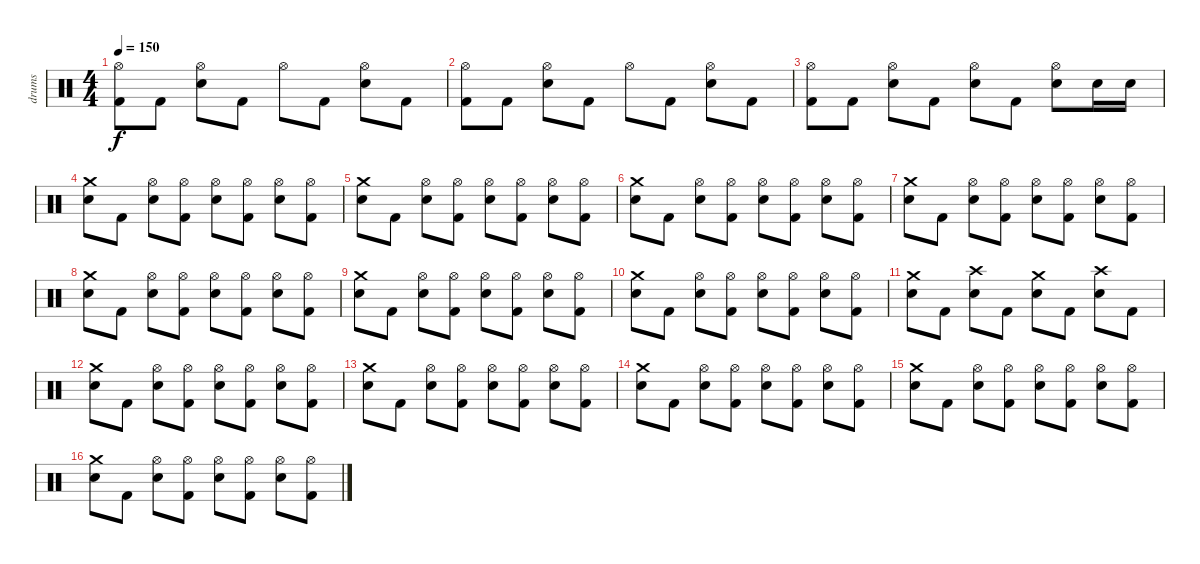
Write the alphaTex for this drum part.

\track ("drums" "drums") {instrument percussion}
\staff {score}
\articulation defaults
\ts (4 4)
\tempo 150
\clef neutral
\ks c
("Hi-Hat (open)" "Kick (hit) 2").8{dy f} "Kick (hit) 2".8 ("Hi-Hat (open)" "Electric Snare (hit)").8 "Kick (hit) 2".8 "Hi-Hat (open)".8 "Kick (hit) 2".8 ("Hi-Hat (open)" "Electric Snare (hit)").8 "Kick (hit) 2".8 |
("Hi-Hat (open)" "Kick (hit) 2").8 "Kick (hit) 2".8 ("Hi-Hat (open)" "Electric Snare (hit)").8 "Kick (hit) 2".8 "Hi-Hat (open)".8 "Kick (hit) 2".8 ("Hi-Hat (open)" "Electric Snare (hit)").8 "Kick (hit) 2".8 |
("Hi-Hat (open)" "Kick (hit) 2").8 "Kick (hit) 2".8 ("Hi-Hat (open)" "Electric Snare (hit)").8 "Kick (hit) 2".8 ("Hi-Hat (open)" "Electric Snare (hit)").8 "Kick (hit) 2".8 ("Hi-Hat (open)" "Electric Snare (hit)").8 "Electric Snare (hit)".16 "Electric Snare (hit)".16 |
("Crash medium (hit)" "Electric Snare (hit)").8 "Kick (hit) 2".8 ("Hi-Hat (open)" "Electric Snare (hit)").8 ("Hi-Hat (open)" "Kick (hit) 2").8 ("Hi-Hat (open)" "Electric Snare (hit)").8 ("Hi-Hat (open)" "Kick (hit) 2").8 ("Hi-Hat (open)" "Electric Snare (hit)").8 ("Hi-Hat (open)" "Kick (hit) 2").8 |
("Crash medium (hit)" "Electric Snare (hit)").8 "Kick (hit) 2".8 ("Hi-Hat (open)" "Electric Snare (hit)").8 ("Hi-Hat (open)" "Kick (hit) 2").8 ("Hi-Hat (open)" "Electric Snare (hit)").8 ("Hi-Hat (open)" "Kick (hit) 2").8 ("Hi-Hat (open)" "Electric Snare (hit)").8 ("Hi-Hat (open)" "Kick (hit) 2").8 |
("Crash medium (hit)" "Electric Snare (hit)").8 "Kick (hit) 2".8 ("Hi-Hat (open)" "Electric Snare (hit)").8 ("Hi-Hat (open)" "Kick (hit) 2").8 ("Hi-Hat (open)" "Electric Snare (hit)").8 ("Hi-Hat (open)" "Kick (hit) 2").8 ("Hi-Hat (open)" "Electric Snare (hit)").8 ("Hi-Hat (open)" "Kick (hit) 2").8 |
("Crash medium (hit)" "Electric Snare (hit)").8 "Kick (hit) 2".8 ("Hi-Hat (open)" "Electric Snare (hit)").8 ("Hi-Hat (open)" "Kick (hit) 2").8 ("Hi-Hat (open)" "Electric Snare (hit)").8 ("Hi-Hat (open)" "Kick (hit) 2").8 ("Hi-Hat (open)" "Electric Snare (hit)").8 ("Hi-Hat (open)" "Kick (hit) 2").8 |
("Crash medium (hit)" "Electric Snare (hit)").8 "Kick (hit) 2".8 ("Hi-Hat (open)" "Electric Snare (hit)").8 ("Hi-Hat (open)" "Kick (hit) 2").8 ("Hi-Hat (open)" "Electric Snare (hit)").8 ("Hi-Hat (open)" "Kick (hit) 2").8 ("Hi-Hat (open)" "Electric Snare (hit)").8 ("Hi-Hat (open)" "Kick (hit) 2").8 |
("Crash medium (hit)" "Electric Snare (hit)").8 "Kick (hit) 2".8 ("Hi-Hat (open)" "Electric Snare (hit)").8 ("Hi-Hat (open)" "Kick (hit) 2").8 ("Hi-Hat (open)" "Electric Snare (hit)").8 ("Hi-Hat (open)" "Kick (hit) 2").8 ("Hi-Hat (open)" "Electric Snare (hit)").8 ("Hi-Hat (open)" "Kick (hit) 2").8 |
("Crash medium (hit)" "Electric Snare (hit)").8 "Kick (hit) 2".8 ("Hi-Hat (open)" "Electric Snare (hit)").8 ("Hi-Hat (open)" "Kick (hit) 2").8 ("Hi-Hat (open)" "Electric Snare (hit)").8 ("Hi-Hat (open)" "Kick (hit) 2").8 ("Hi-Hat (open)" "Electric Snare (hit)").8 ("Hi-Hat (open)" "Kick (hit) 2").8 |
("Crash medium (hit)" "Electric Snare (hit)").8 "Kick (hit) 2".8 ("Crash high (hit)" "Electric Snare (hit)").8 "Kick (hit) 2".8 ("Crash medium (hit)" "Electric Snare (hit)").8 "Kick (hit) 2".8 ("Crash high (hit)" "Electric Snare (hit)").8 "Kick (hit) 2".8 |
("Crash medium (hit)" "Electric Snare (hit)").8 "Kick (hit) 2".8 ("Hi-Hat (open)" "Electric Snare (hit)").8 ("Hi-Hat (open)" "Kick (hit) 2").8 ("Hi-Hat (open)" "Electric Snare (hit)").8 ("Hi-Hat (open)" "Kick (hit) 2").8 ("Hi-Hat (open)" "Electric Snare (hit)").8 ("Hi-Hat (open)" "Kick (hit) 2").8 |
("Crash medium (hit)" "Electric Snare (hit)").8 "Kick (hit) 2".8 ("Hi-Hat (open)" "Electric Snare (hit)").8 ("Hi-Hat (open)" "Kick (hit) 2").8 ("Hi-Hat (open)" "Electric Snare (hit)").8 ("Hi-Hat (open)" "Kick (hit) 2").8 ("Hi-Hat (open)" "Electric Snare (hit)").8 ("Hi-Hat (open)" "Kick (hit) 2").8 |
("Crash medium (hit)" "Electric Snare (hit)").8 "Kick (hit) 2".8 ("Hi-Hat (open)" "Electric Snare (hit)").8 ("Hi-Hat (open)" "Kick (hit) 2").8 ("Hi-Hat (open)" "Electric Snare (hit)").8 ("Hi-Hat (open)" "Kick (hit) 2").8 ("Hi-Hat (open)" "Electric Snare (hit)").8 ("Hi-Hat (open)" "Kick (hit) 2").8 |
("Crash medium (hit)" "Electric Snare (hit)").8 "Kick (hit) 2".8 ("Hi-Hat (open)" "Electric Snare (hit)").8 ("Hi-Hat (open)" "Kick (hit) 2").8 ("Hi-Hat (open)" "Electric Snare (hit)").8 ("Hi-Hat (open)" "Kick (hit) 2").8 ("Hi-Hat (open)" "Electric Snare (hit)").8 ("Hi-Hat (open)" "Kick (hit) 2").8 |
("Crash medium (hit)" "Electric Snare (hit)").8 "Kick (hit) 2".8 ("Hi-Hat (open)" "Electric Snare (hit)").8 ("Hi-Hat (open)" "Kick (hit) 2").8 ("Hi-Hat (open)" "Electric Snare (hit)").8 ("Hi-Hat (open)" "Kick (hit) 2").8 ("Hi-Hat (open)" "Electric Snare (hit)").8 ("Hi-Hat (open)" "Kick (hit) 2").8
